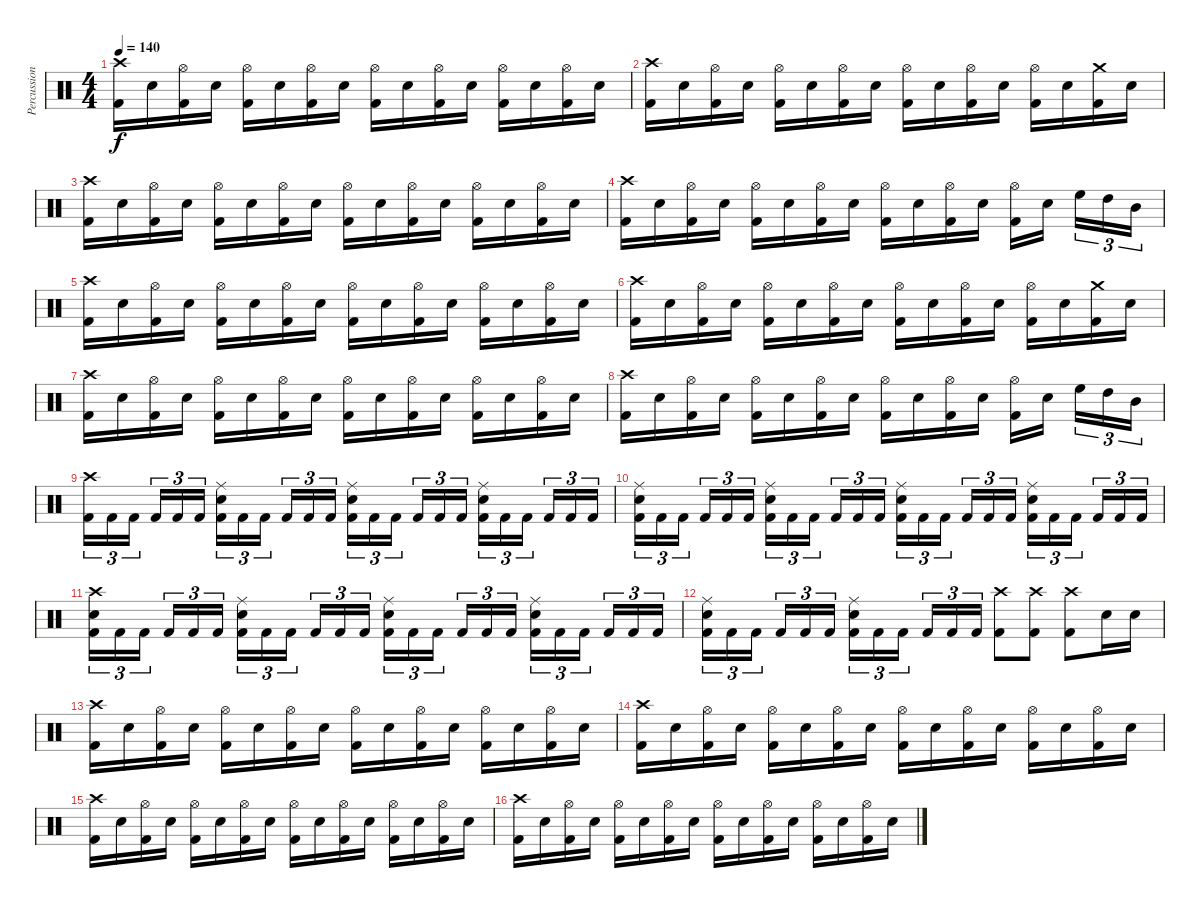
\track ("Percussion" "Percussion") {instrument percussion}
\staff {score}
\articulation defaults
\ts (4 4)
\tempo 140
\clef neutral
\ks c
("Crash high (hit)" "Kick (hit) 2").16{dy f} "Electric Snare (hit)".16 ("Hi-Hat (open)" "Kick (hit) 2").16 "Electric Snare (hit)".16 ("Hi-Hat (open)" "Kick (hit) 2").16 "Electric Snare (hit)".16 ("Hi-Hat (open)" "Kick (hit) 2").16 "Electric Snare (hit)".16 ("Hi-Hat (open)" "Kick (hit) 2").16 "Electric Snare (hit)".16 ("Hi-Hat (open)" "Kick (hit) 2").16 "Electric Snare (hit)".16 ("Hi-Hat (open)" "Kick (hit) 2").16 "Electric Snare (hit)".16 ("Hi-Hat (open)" "Kick (hit) 2").16 "Electric Snare (hit)".16 |
("Crash high (hit)" "Kick (hit) 2").16 "Electric Snare (hit)".16 ("Hi-Hat (open)" "Kick (hit) 2").16 "Electric Snare (hit)".16 ("Hi-Hat (open)" "Kick (hit) 2").16 "Electric Snare (hit)".16 ("Hi-Hat (open)" "Kick (hit) 2").16 "Electric Snare (hit)".16 ("Hi-Hat (open)" "Kick (hit) 2").16 "Electric Snare (hit)".16 ("Hi-Hat (open)" "Kick (hit) 2").16 "Electric Snare (hit)".16 ("Hi-Hat (open)" "Kick (hit) 2").16 "Electric Snare (hit)".16 ("Crash medium (hit)" "Kick (hit) 2").16 "Electric Snare (hit)".16 |
("Crash high (hit)" "Kick (hit) 2").16 "Electric Snare (hit)".16 ("Hi-Hat (open)" "Kick (hit) 2").16 "Electric Snare (hit)".16 ("Hi-Hat (open)" "Kick (hit) 2").16 "Electric Snare (hit)".16 ("Hi-Hat (open)" "Kick (hit) 2").16 "Electric Snare (hit)".16 ("Hi-Hat (open)" "Kick (hit) 2").16 "Electric Snare (hit)".16 ("Hi-Hat (open)" "Kick (hit) 2").16 "Electric Snare (hit)".16 ("Hi-Hat (open)" "Kick (hit) 2").16 "Electric Snare (hit)".16 ("Hi-Hat (open)" "Kick (hit) 2").16 "Electric Snare (hit)".16 |
("Crash high (hit)" "Kick (hit) 2").16 "Electric Snare (hit)".16 ("Hi-Hat (open)" "Kick (hit) 2").16 "Electric Snare (hit)".16 ("Hi-Hat (open)" "Kick (hit) 2").16 "Electric Snare (hit)".16 ("Hi-Hat (open)" "Kick (hit) 2").16 "Electric Snare (hit)".16 ("Hi-Hat (open)" "Kick (hit) 2").16 "Electric Snare (hit)".16 ("Hi-Hat (open)" "Kick (hit) 2").16 "Electric Snare (hit)".16 ("Hi-Hat (open)" "Kick (hit) 2").16 "Electric Snare (hit)".16 "High Floor Tom (hit)".16{tu (3 2)} "High Tom (hit)".16{tu (3 2)} "Mid Tom (hit)".16{tu (3 2)} |
("Crash high (hit)" "Kick (hit) 2").16 "Electric Snare (hit)".16 ("Hi-Hat (open)" "Kick (hit) 2").16 "Electric Snare (hit)".16 ("Hi-Hat (open)" "Kick (hit) 2").16 "Electric Snare (hit)".16 ("Hi-Hat (open)" "Kick (hit) 2").16 "Electric Snare (hit)".16 ("Hi-Hat (open)" "Kick (hit) 2").16 "Electric Snare (hit)".16 ("Hi-Hat (open)" "Kick (hit) 2").16 "Electric Snare (hit)".16 ("Hi-Hat (open)" "Kick (hit) 2").16 "Electric Snare (hit)".16 ("Hi-Hat (open)" "Kick (hit) 2").16 "Electric Snare (hit)".16 |
("Crash high (hit)" "Kick (hit) 2").16 "Electric Snare (hit)".16 ("Hi-Hat (open)" "Kick (hit) 2").16 "Electric Snare (hit)".16 ("Hi-Hat (open)" "Kick (hit) 2").16 "Electric Snare (hit)".16 ("Hi-Hat (open)" "Kick (hit) 2").16 "Electric Snare (hit)".16 ("Hi-Hat (open)" "Kick (hit) 2").16 "Electric Snare (hit)".16 ("Hi-Hat (open)" "Kick (hit) 2").16 "Electric Snare (hit)".16 ("Hi-Hat (open)" "Kick (hit) 2").16 "Electric Snare (hit)".16 ("Crash medium (hit)" "Kick (hit) 2").16 "Electric Snare (hit)".16 |
("Crash high (hit)" "Kick (hit) 2").16 "Electric Snare (hit)".16 ("Hi-Hat (open)" "Kick (hit) 2").16 "Electric Snare (hit)".16 ("Hi-Hat (open)" "Kick (hit) 2").16 "Electric Snare (hit)".16 ("Hi-Hat (open)" "Kick (hit) 2").16 "Electric Snare (hit)".16 ("Hi-Hat (open)" "Kick (hit) 2").16 "Electric Snare (hit)".16 ("Hi-Hat (open)" "Kick (hit) 2").16 "Electric Snare (hit)".16 ("Hi-Hat (open)" "Kick (hit) 2").16 "Electric Snare (hit)".16 ("Hi-Hat (open)" "Kick (hit) 2").16 "Electric Snare (hit)".16 |
("Crash high (hit)" "Kick (hit) 2").16 "Electric Snare (hit)".16 ("Hi-Hat (open)" "Kick (hit) 2").16 "Electric Snare (hit)".16 ("Hi-Hat (open)" "Kick (hit) 2").16 "Electric Snare (hit)".16 ("Hi-Hat (open)" "Kick (hit) 2").16 "Electric Snare (hit)".16 ("Hi-Hat (open)" "Kick (hit) 2").16 "Electric Snare (hit)".16 ("Hi-Hat (open)" "Kick (hit) 2").16 "Electric Snare (hit)".16 ("Hi-Hat (open)" "Kick (hit) 2").16 "Electric Snare (hit)".16 "High Floor Tom (hit)".16{tu (3 2)} "High Tom (hit)".16{tu (3 2)} "Mid Tom (hit)".16{tu (3 2)} |
("Crash high (hit)" "Kick (hit) 2").16{tu (3 2)} "Kick (hit) 2".16{tu (3 2)} "Kick (hit) 2".16{tu (3 2)} "Kick (hit) 2".16{tu (3 2)} "Kick (hit) 2".16{tu (3 2)} "Kick (hit) 2".16{tu (3 2)} ("Ride (middle)" "Electric Snare (hit)" "Kick (hit) 2").16{tu (3 2)} "Kick (hit) 2".16{tu (3 2)} "Kick (hit) 2".16{tu (3 2)} "Kick (hit) 2".16{tu (3 2)} "Kick (hit) 2".16{tu (3 2)} "Kick (hit) 2".16{tu (3 2)} ("Ride (middle)" "Electric Snare (hit)" "Kick (hit) 2").16{tu (3 2)} "Kick (hit) 2".16{tu (3 2)} "Kick (hit) 2".16{tu (3 2)} "Kick (hit) 2".16{tu (3 2)} "Kick (hit) 2".16{tu (3 2)} "Kick (hit) 2".16{tu (3 2)} ("Ride (middle)" "Electric Snare (hit)" "Kick (hit) 2").16{tu (3 2)} "Kick (hit) 2".16{tu (3 2)} "Kick (hit) 2".16{tu (3 2)} "Kick (hit) 2".16{tu (3 2)} "Kick (hit) 2".16{tu (3 2)} "Kick (hit) 2".16{tu (3 2)} |
("Ride (middle)" "Electric Snare (hit)" "Kick (hit) 2").16{tu (3 2)} "Kick (hit) 2".16{tu (3 2)} "Kick (hit) 2".16{tu (3 2)} "Kick (hit) 2".16{tu (3 2)} "Kick (hit) 2".16{tu (3 2)} "Kick (hit) 2".16{tu (3 2)} ("Ride (middle)" "Electric Snare (hit)" "Kick (hit) 2").16{tu (3 2)} "Kick (hit) 2".16{tu (3 2)} "Kick (hit) 2".16{tu (3 2)} "Kick (hit) 2".16{tu (3 2)} "Kick (hit) 2".16{tu (3 2)} "Kick (hit) 2".16{tu (3 2)} ("Ride (middle)" "Electric Snare (hit)" "Kick (hit) 2").16{tu (3 2)} "Kick (hit) 2".16{tu (3 2)} "Kick (hit) 2".16{tu (3 2)} "Kick (hit) 2".16{tu (3 2)} "Kick (hit) 2".16{tu (3 2)} "Kick (hit) 2".16{tu (3 2)} ("Ride (middle)" "Electric Snare (hit)" "Kick (hit) 2").16{tu (3 2)} "Kick (hit) 2".16{tu (3 2)} "Kick (hit) 2".16{tu (3 2)} "Kick (hit) 2".16{tu (3 2)} "Kick (hit) 2".16{tu (3 2)} "Kick (hit) 2".16{tu (3 2)} |
("Crash high (hit)" "Electric Snare (hit)" "Kick (hit) 2").16{tu (3 2)} "Kick (hit) 2".16{tu (3 2)} "Kick (hit) 2".16{tu (3 2)} "Kick (hit) 2".16{tu (3 2)} "Kick (hit) 2".16{tu (3 2)} "Kick (hit) 2".16{tu (3 2)} ("Ride (middle)" "Electric Snare (hit)" "Kick (hit) 2").16{tu (3 2)} "Kick (hit) 2".16{tu (3 2)} "Kick (hit) 2".16{tu (3 2)} "Kick (hit) 2".16{tu (3 2)} "Kick (hit) 2".16{tu (3 2)} "Kick (hit) 2".16{tu (3 2)} ("Ride (middle)" "Electric Snare (hit)" "Kick (hit) 2").16{tu (3 2)} "Kick (hit) 2".16{tu (3 2)} "Kick (hit) 2".16{tu (3 2)} "Kick (hit) 2".16{tu (3 2)} "Kick (hit) 2".16{tu (3 2)} "Kick (hit) 2".16{tu (3 2)} ("Ride (middle)" "Electric Snare (hit)" "Kick (hit) 2").16{tu (3 2)} "Kick (hit) 2".16{tu (3 2)} "Kick (hit) 2".16{tu (3 2)} "Kick (hit) 2".16{tu (3 2)} "Kick (hit) 2".16{tu (3 2)} "Kick (hit) 2".16{tu (3 2)} |
("Ride (middle)" "Electric Snare (hit)" "Kick (hit) 2").16{tu (3 2)} "Kick (hit) 2".16{tu (3 2)} "Kick (hit) 2".16{tu (3 2)} "Kick (hit) 2".16{tu (3 2)} "Kick (hit) 2".16{tu (3 2)} "Kick (hit) 2".16{tu (3 2)} ("Ride (middle)" "Electric Snare (hit)" "Kick (hit) 2").16{tu (3 2)} "Kick (hit) 2".16{tu (3 2)} "Kick (hit) 2".16{tu (3 2)} "Kick (hit) 2".16{tu (3 2)} "Kick (hit) 2".16{tu (3 2)} "Kick (hit) 2".16{tu (3 2)} ("Crash high (hit)" "Kick (hit) 2").8 ("Crash high (hit)" "Kick (hit) 2").8 ("Crash high (hit)" "Kick (hit) 2").8 "Electric Snare (hit)".16 "Electric Snare (hit)".16 |
("Crash high (hit)" "Kick (hit) 2").16 "Electric Snare (hit)".16 ("Hi-Hat (open)" "Kick (hit) 2").16 "Electric Snare (hit)".16 ("Hi-Hat (open)" "Kick (hit) 2").16 "Electric Snare (hit)".16 ("Hi-Hat (open)" "Kick (hit) 2").16 "Electric Snare (hit)".16 ("Hi-Hat (open)" "Kick (hit) 2").16 "Electric Snare (hit)".16 ("Hi-Hat (open)" "Kick (hit) 2").16 "Electric Snare (hit)".16 ("Hi-Hat (open)" "Kick (hit) 2").16 "Electric Snare (hit)".16 ("Hi-Hat (open)" "Kick (hit) 2").16 "Electric Snare (hit)".16 |
("Crash high (hit)" "Kick (hit) 2").16 "Electric Snare (hit)".16 ("Hi-Hat (open)" "Kick (hit) 2").16 "Electric Snare (hit)".16 ("Hi-Hat (open)" "Kick (hit) 2").16 "Electric Snare (hit)".16 ("Hi-Hat (open)" "Kick (hit) 2").16 "Electric Snare (hit)".16 ("Hi-Hat (open)" "Kick (hit) 2").16 "Electric Snare (hit)".16 ("Hi-Hat (open)" "Kick (hit) 2").16 "Electric Snare (hit)".16 ("Hi-Hat (open)" "Kick (hit) 2").16 "Electric Snare (hit)".16 ("Hi-Hat (open)" "Kick (hit) 2").16 "Electric Snare (hit)".16 |
("Crash high (hit)" "Kick (hit) 2").16 "Electric Snare (hit)".16 ("Hi-Hat (open)" "Kick (hit) 2").16 "Electric Snare (hit)".16 ("Hi-Hat (open)" "Kick (hit) 2").16 "Electric Snare (hit)".16 ("Hi-Hat (open)" "Kick (hit) 2").16 "Electric Snare (hit)".16 ("Hi-Hat (open)" "Kick (hit) 2").16 "Electric Snare (hit)".16 ("Hi-Hat (open)" "Kick (hit) 2").16 "Electric Snare (hit)".16 ("Hi-Hat (open)" "Kick (hit) 2").16 "Electric Snare (hit)".16 ("Hi-Hat (open)" "Kick (hit) 2").16 "Electric Snare (hit)".16 |
("Crash high (hit)" "Kick (hit) 2").16 "Electric Snare (hit)".16 ("Hi-Hat (open)" "Kick (hit) 2").16 "Electric Snare (hit)".16 ("Hi-Hat (open)" "Kick (hit) 2").16 "Electric Snare (hit)".16 ("Hi-Hat (open)" "Kick (hit) 2").16 "Electric Snare (hit)".16 ("Hi-Hat (open)" "Kick (hit) 2").16 "Electric Snare (hit)".16 ("Hi-Hat (open)" "Kick (hit) 2").16 "Electric Snare (hit)".16 ("Hi-Hat (open)" "Kick (hit) 2").16 "Electric Snare (hit)".16 ("Hi-Hat (open)" "Kick (hit) 2").16 "Electric Snare (hit)".16
